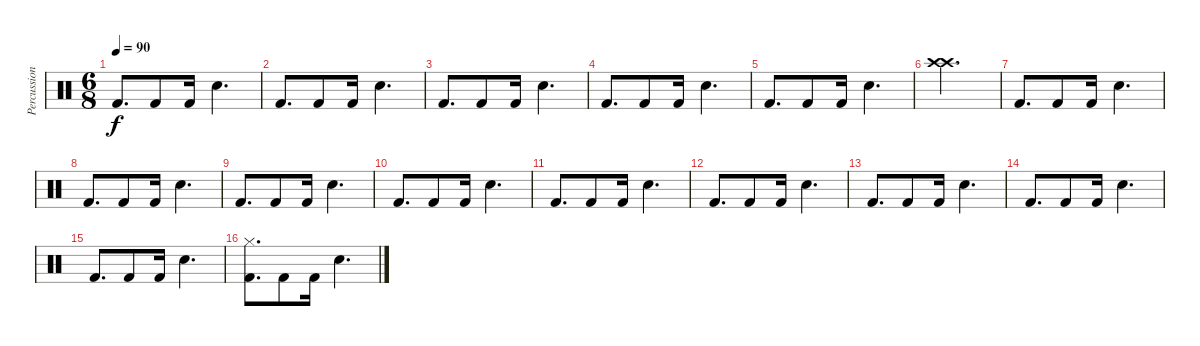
\track ("Percussion" "Percussion") {instrument percussion}
\staff {score}
\articulation defaults
\ts (6 8)
\tempo 90
\clef neutral
\ks c "Kick (hit) 2".8{d dy f} "Kick (hit) 2".8 "Kick (hit) 2".16 "Electric Snare (hit)".4{d}
|
"Kick (hit) 2".8{d} "Kick (hit) 2".8 "Kick (hit) 2".16 "Electric Snare (hit)".4{d} |
"Kick (hit) 2".8{d} "Kick (hit) 2".8 "Kick (hit) 2".16 "Electric Snare (hit)".4{d} |
"Kick (hit) 2".8{d} "Kick (hit) 2".8 "Kick (hit) 2".16 "Electric Snare (hit)".4{d} |
"Kick (hit) 2".8{d} "Kick (hit) 2".8 "Kick (hit) 2".16 "Electric Snare (hit)".4{d} |
("Crash high (hit)" "Crash high (hit)").2{d} |
"Kick (hit) 2".8{d} "Kick (hit) 2".8 "Kick (hit) 2".16 "Electric Snare (hit)".4{d} |
"Kick (hit) 2".8{d} "Kick (hit) 2".8 "Kick (hit) 2".16 "Electric Snare (hit)".4{d} |
"Kick (hit) 2".8{d} "Kick (hit) 2".8 "Kick (hit) 2".16 "Electric Snare (hit)".4{d} |
"Kick (hit) 2".8{d} "Kick (hit) 2".8 "Kick (hit) 2".16 "Electric Snare (hit)".4{d} |
"Kick (hit) 2".8{d} "Kick (hit) 2".8 "Kick (hit) 2".16 "Electric Snare (hit)".4{d} |
"Kick (hit) 2".8{d} "Kick (hit) 2".8 "Kick (hit) 2".16 "Electric Snare (hit)".4{d} |
"Kick (hit) 2".8{d} "Kick (hit) 2".8 "Kick (hit) 2".16 "Electric Snare (hit)".4{d} |
"Kick (hit) 2".8{d} "Kick (hit) 2".8 "Kick (hit) 2".16 "Electric Snare (hit)".4{d} |
"Kick (hit) 2".8{d} "Kick (hit) 2".8 "Kick (hit) 2".16 "Electric Snare (hit)".4{d} |
("Hi-Hat (closed)" "Kick (hit) 2").8{d} "Kick (hit) 2".8 "Kick (hit) 2".16 "Electric Snare (hit)".4{d}
